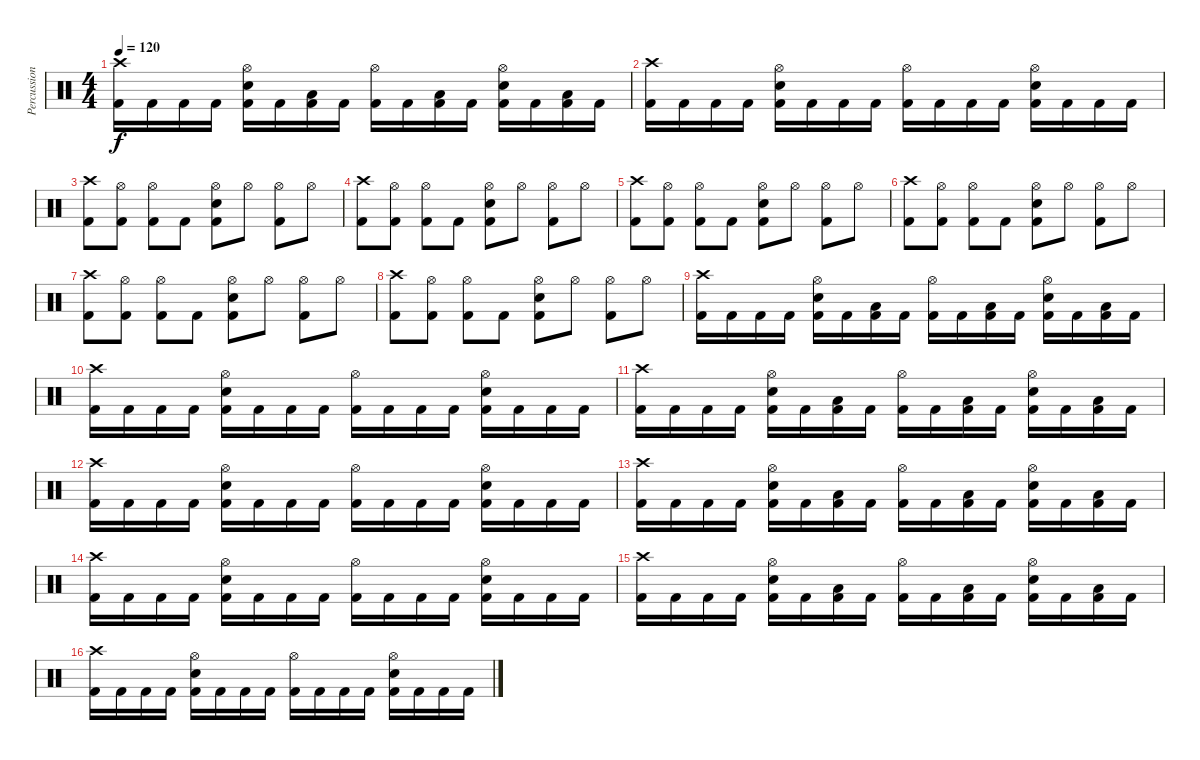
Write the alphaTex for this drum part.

\track ("Percussion" "Percussion") {instrument percussion}
\staff {score}
\articulation defaults
\ts (4 4)
\tempo 120
\clef neutral
\ks c
("Kick (hit) 2" "Crash high (hit)").16{dy f} "Kick (hit) 2".16 "Kick (hit) 2".16 "Kick (hit) 2".16 ("Kick (hit) 2" "Snare (hit) 2" "Hi-Hat (open)").16 "Kick (hit) 2".16 ("Kick (hit) 2" "Low Tom (hit)").16 "Kick (hit) 2".16 ("Kick (hit) 2" "Hi-Hat (open)").16 "Kick (hit) 2".16 ("Kick (hit) 2" "Low Tom (hit)").16 "Kick (hit) 2".16 ("Kick (hit) 2" "Snare (hit) 2" "Hi-Hat (open)").16 "Kick (hit) 2".16 ("Kick (hit) 2" "Low Floor Tom (hit)").16 "Kick (hit) 2".16 |
("Kick (hit) 2" "Crash high (hit)").16 "Kick (hit) 2".16 "Kick (hit) 2".16 "Kick (hit) 2".16 ("Kick (hit) 2" "Snare (hit) 2" "Hi-Hat (open)").16 "Kick (hit) 2".16 "Kick (hit) 2".16 "Kick (hit) 2".16 ("Kick (hit) 2" "Hi-Hat (open)").16 "Kick (hit) 2".16 "Kick (hit) 2".16 "Kick (hit) 2".16 ("Kick (hit) 2" "Snare (hit) 2" "Hi-Hat (open)").16 "Kick (hit) 2".16 "Kick (hit) 2".16 "Kick (hit) 2".16 |
("Kick (hit) 2" "Crash high (hit)").8 ("Kick (hit) 2" "Hi-Hat (open)").8 ("Kick (hit) 2" "Hi-Hat (open)").8 "Kick (hit) 2".8 ("Kick (hit) 2" "Snare (hit) 2" "Hi-Hat (open)").8 "Hi-Hat (open)".8 ("Kick (hit) 2" "Hi-Hat (open)").8 "Hi-Hat (open)".8 |
("Kick (hit) 2" "Crash high (hit)").8 ("Kick (hit) 2" "Hi-Hat (open)").8 ("Kick (hit) 2" "Hi-Hat (open)").8 "Kick (hit) 2".8 ("Kick (hit) 2" "Snare (hit) 2" "Hi-Hat (open)").8 "Hi-Hat (open)".8 ("Kick (hit) 2" "Hi-Hat (open)").8 "Hi-Hat (open)".8 |
("Kick (hit) 2" "Crash high (hit)").8 ("Kick (hit) 2" "Hi-Hat (open)").8 ("Kick (hit) 2" "Hi-Hat (open)").8 "Kick (hit) 2".8 ("Kick (hit) 2" "Snare (hit) 2" "Hi-Hat (open)").8 "Hi-Hat (open)".8 ("Kick (hit) 2" "Hi-Hat (open)").8 "Hi-Hat (open)".8 |
("Kick (hit) 2" "Crash high (hit)").8 ("Kick (hit) 2" "Hi-Hat (open)").8 ("Kick (hit) 2" "Hi-Hat (open)").8 "Kick (hit) 2".8 ("Kick (hit) 2" "Snare (hit) 2" "Hi-Hat (open)").8 "Hi-Hat (open)".8 ("Kick (hit) 2" "Hi-Hat (open)").8 "Hi-Hat (open)".8 |
("Kick (hit) 2" "Crash high (hit)").8 ("Kick (hit) 2" "Hi-Hat (open)").8 ("Kick (hit) 2" "Hi-Hat (open)").8 "Kick (hit) 2".8 ("Kick (hit) 2" "Snare (hit) 2" "Hi-Hat (open)").8 "Hi-Hat (open)".8 ("Kick (hit) 2" "Hi-Hat (open)").8 "Hi-Hat (open)".8 |
("Kick (hit) 2" "Crash high (hit)").8 ("Kick (hit) 2" "Hi-Hat (open)").8 ("Kick (hit) 2" "Hi-Hat (open)").8 "Kick (hit) 2".8 ("Kick (hit) 2" "Snare (hit) 2" "Hi-Hat (open)").8 "Hi-Hat (open)".8 ("Kick (hit) 2" "Hi-Hat (open)").8 "Hi-Hat (open)".8 |
("Kick (hit) 2" "Crash high (hit)").16 "Kick (hit) 2".16 "Kick (hit) 2".16 "Kick (hit) 2".16 ("Kick (hit) 2" "Snare (hit) 2" "Hi-Hat (open)").16 "Kick (hit) 2".16 ("Kick (hit) 2" "Low Tom (hit)").16 "Kick (hit) 2".16 ("Kick (hit) 2" "Hi-Hat (open)").16 "Kick (hit) 2".16 ("Kick (hit) 2" "Low Tom (hit)").16 "Kick (hit) 2".16 ("Kick (hit) 2" "Snare (hit) 2" "Hi-Hat (open)").16 "Kick (hit) 2".16 ("Kick (hit) 2" "Low Floor Tom (hit)").16 "Kick (hit) 2".16 |
("Kick (hit) 2" "Crash high (hit)").16 "Kick (hit) 2".16 "Kick (hit) 2".16 "Kick (hit) 2".16 ("Kick (hit) 2" "Snare (hit) 2" "Hi-Hat (open)").16 "Kick (hit) 2".16 "Kick (hit) 2".16 "Kick (hit) 2".16 ("Kick (hit) 2" "Hi-Hat (open)").16 "Kick (hit) 2".16 "Kick (hit) 2".16 "Kick (hit) 2".16 ("Kick (hit) 2" "Snare (hit) 2" "Hi-Hat (open)").16 "Kick (hit) 2".16 "Kick (hit) 2".16 "Kick (hit) 2".16 |
("Kick (hit) 2" "Crash high (hit)").16 "Kick (hit) 2".16 "Kick (hit) 2".16 "Kick (hit) 2".16 ("Kick (hit) 2" "Snare (hit) 2" "Hi-Hat (open)").16 "Kick (hit) 2".16 ("Kick (hit) 2" "Low Tom (hit)").16 "Kick (hit) 2".16 ("Kick (hit) 2" "Hi-Hat (open)").16 "Kick (hit) 2".16 ("Kick (hit) 2" "Low Tom (hit)").16 "Kick (hit) 2".16 ("Kick (hit) 2" "Snare (hit) 2" "Hi-Hat (open)").16 "Kick (hit) 2".16 ("Kick (hit) 2" "Low Floor Tom (hit)").16 "Kick (hit) 2".16 |
("Kick (hit) 2" "Crash high (hit)").16 "Kick (hit) 2".16 "Kick (hit) 2".16 "Kick (hit) 2".16 ("Kick (hit) 2" "Snare (hit) 2" "Hi-Hat (open)").16 "Kick (hit) 2".16 "Kick (hit) 2".16 "Kick (hit) 2".16 ("Kick (hit) 2" "Hi-Hat (open)").16 "Kick (hit) 2".16 "Kick (hit) 2".16 "Kick (hit) 2".16 ("Kick (hit) 2" "Snare (hit) 2" "Hi-Hat (open)").16 "Kick (hit) 2".16 "Kick (hit) 2".16 "Kick (hit) 2".16 |
("Kick (hit) 2" "Crash high (hit)").16 "Kick (hit) 2".16 "Kick (hit) 2".16 "Kick (hit) 2".16 ("Kick (hit) 2" "Snare (hit) 2" "Hi-Hat (open)").16 "Kick (hit) 2".16 ("Kick (hit) 2" "Low Tom (hit)").16 "Kick (hit) 2".16 ("Kick (hit) 2" "Hi-Hat (open)").16 "Kick (hit) 2".16 ("Kick (hit) 2" "Low Tom (hit)").16 "Kick (hit) 2".16 ("Kick (hit) 2" "Snare (hit) 2" "Hi-Hat (open)").16 "Kick (hit) 2".16 ("Kick (hit) 2" "Low Floor Tom (hit)").16 "Kick (hit) 2".16 |
("Kick (hit) 2" "Crash high (hit)").16 "Kick (hit) 2".16 "Kick (hit) 2".16 "Kick (hit) 2".16 ("Kick (hit) 2" "Snare (hit) 2" "Hi-Hat (open)").16 "Kick (hit) 2".16 "Kick (hit) 2".16 "Kick (hit) 2".16 ("Kick (hit) 2" "Hi-Hat (open)").16 "Kick (hit) 2".16 "Kick (hit) 2".16 "Kick (hit) 2".16 ("Kick (hit) 2" "Snare (hit) 2" "Hi-Hat (open)").16 "Kick (hit) 2".16 "Kick (hit) 2".16 "Kick (hit) 2".16 |
("Kick (hit) 2" "Crash high (hit)").16 "Kick (hit) 2".16 "Kick (hit) 2".16 "Kick (hit) 2".16 ("Kick (hit) 2" "Snare (hit) 2" "Hi-Hat (open)").16 "Kick (hit) 2".16 ("Kick (hit) 2" "Low Tom (hit)").16 "Kick (hit) 2".16 ("Kick (hit) 2" "Hi-Hat (open)").16 "Kick (hit) 2".16 ("Kick (hit) 2" "Low Tom (hit)").16 "Kick (hit) 2".16 ("Kick (hit) 2" "Snare (hit) 2" "Hi-Hat (open)").16 "Kick (hit) 2".16 ("Kick (hit) 2" "Low Floor Tom (hit)").16 "Kick (hit) 2".16 |
("Kick (hit) 2" "Crash high (hit)").16 "Kick (hit) 2".16 "Kick (hit) 2".16 "Kick (hit) 2".16 ("Kick (hit) 2" "Snare (hit) 2" "Hi-Hat (open)").16 "Kick (hit) 2".16 "Kick (hit) 2".16 "Kick (hit) 2".16 ("Kick (hit) 2" "Hi-Hat (open)").16 "Kick (hit) 2".16 "Kick (hit) 2".16 "Kick (hit) 2".16 ("Kick (hit) 2" "Snare (hit) 2" "Hi-Hat (open)").16 "Kick (hit) 2".16 "Kick (hit) 2".16 "Kick (hit) 2".16
